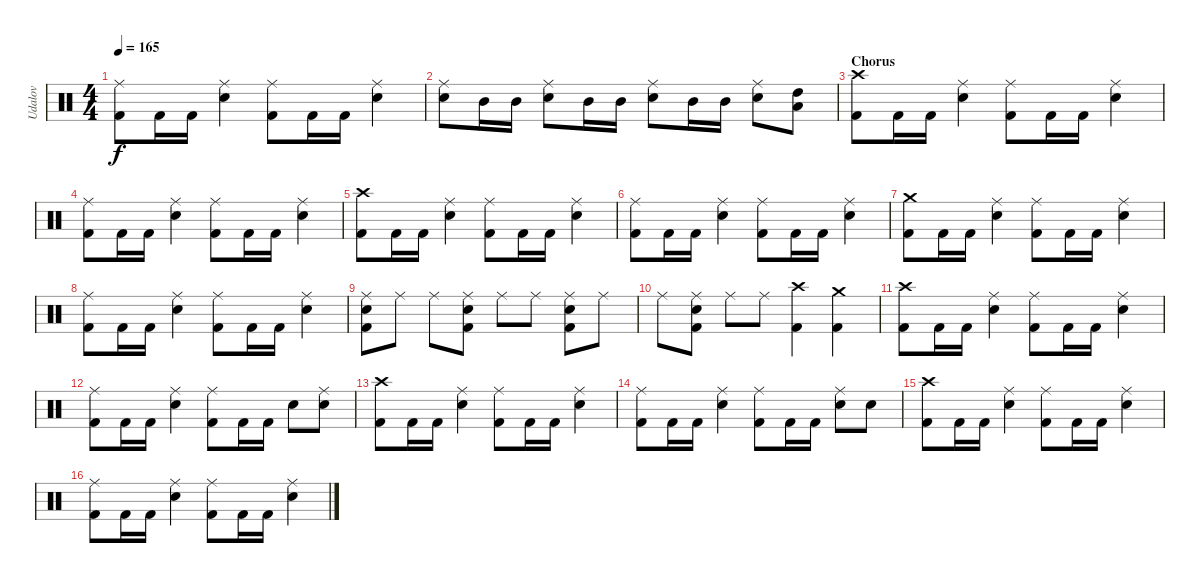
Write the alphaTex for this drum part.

\track ("Udalov" "Udalov") {instrument percussion}
\staff {score}
\articulation defaults
\ts (4 4)
\tempo 165
\clef neutral
\ks c
("Kick (hit) 2" "Ride (middle)").8{dy f} "Kick (hit) 2".16 "Kick (hit) 2".16 ("Snare (hit) 2" "Ride (middle)").4 ("Kick (hit) 2" "Ride (middle)").8 "Kick (hit) 2".16 "Kick (hit) 2".16 ("Snare (hit) 2" "Ride (middle)").4 |
("Electric Snare (hit)" "Ride (middle)").8 "Mid Tom (hit)".16 "Mid Tom (hit)".16 ("Electric Snare (hit)" "Ride (middle)").8 "Mid Tom (hit)".16 "Mid Tom (hit)".16 ("Electric Snare (hit)" "Ride (middle)").8 "Mid Tom (hit)".16 "Mid Tom (hit)".16 ("Electric Snare (hit)" "Ride (middle)").8 ("High Tom (hit)" "Low Tom (hit)").8 |
\section ("" "Chorus")
("Kick (hit) 2" "Crash high (hit)").8 "Kick (hit) 2".16 "Kick (hit) 2".16 ("Snare (hit) 2" "Ride (middle)").4 ("Kick (hit) 2" "Ride (middle)").8 "Kick (hit) 2".16 "Kick (hit) 2".16 ("Snare (hit) 2" "Ride (middle)").4 |
("Kick (hit) 2" "Ride (middle)").8 "Kick (hit) 2".16 "Kick (hit) 2".16 ("Snare (hit) 2" "Ride (middle)").4 ("Kick (hit) 2" "Ride (middle)").8 "Kick (hit) 2".16 "Kick (hit) 2".16 ("Snare (hit) 2" "Ride (middle)").4 |
("Kick (hit) 2" "Crash high (hit)").8 "Kick (hit) 2".16 "Kick (hit) 2".16 ("Snare (hit) 2" "Ride (middle)").4 ("Kick (hit) 2" "Ride (middle)").8 "Kick (hit) 2".16 "Kick (hit) 2".16 ("Snare (hit) 2" "Ride (middle)").4 |
("Kick (hit) 2" "Ride (middle)").8 "Kick (hit) 2".16 "Kick (hit) 2".16 ("Snare (hit) 2" "Ride (middle)").4 ("Kick (hit) 2" "Ride (middle)").8 "Kick (hit) 2".16 "Kick (hit) 2".16 ("Snare (hit) 2" "Ride (middle)").4 |
("Kick (hit) 2" "Crash medium (hit)").8 "Kick (hit) 2".16 "Kick (hit) 2".16 ("Snare (hit) 2" "Ride (middle)").4 ("Kick (hit) 2" "Ride (middle)").8 "Kick (hit) 2".16 "Kick (hit) 2".16 ("Snare (hit) 2" "Ride (middle)").4 |
("Kick (hit) 2" "Ride (middle)").8 "Kick (hit) 2".16 "Kick (hit) 2".16 ("Snare (hit) 2" "Ride (middle)").4 ("Kick (hit) 2" "Ride (middle)").8 "Kick (hit) 2".16 "Kick (hit) 2".16 ("Snare (hit) 2" "Ride (middle)").4 |
("Electric Snare (hit)" "Ride (middle)" "Kick (hit) 2").8 "Ride (middle)".8 "Ride (middle)".8 ("Electric Snare (hit)" "Ride (middle)" "Kick (hit) 2").8 "Ride (middle)".8 "Ride (middle)".8 ("Electric Snare (hit)" "Ride (middle)" "Kick (hit) 2").8 "Ride (middle)".8 |
"Ride (middle)".8 ("Electric Snare (hit)" "Ride (middle)" "Kick (hit) 2").8 "Ride (middle)".8 "Ride (middle)".8 ("Kick (hit) 2" "Crash high (hit)").4 ("Kick (hit) 2" "Crash medium (hit)").4 |
("Kick (hit) 2" "Crash high (hit)").8 "Kick (hit) 2".16 "Kick (hit) 2".16 ("Snare (hit) 2" "Ride (middle)").4 ("Kick (hit) 2" "Ride (middle)").8 "Kick (hit) 2".16 "Kick (hit) 2".16 ("Snare (hit) 2" "Ride (middle)").4 |
("Kick (hit) 2" "Ride (middle)").8 "Kick (hit) 2".16 "Kick (hit) 2".16 ("Snare (hit) 2" "Ride (middle)").4 ("Kick (hit) 2" "Ride (middle)").8 "Kick (hit) 2".16 "Kick (hit) 2".16 "Snare (hit) 2".8 ("Snare (hit) 2" "Ride (middle)").8 |
("Kick (hit) 2" "Crash high (hit)").8 "Kick (hit) 2".16 "Kick (hit) 2".16 ("Snare (hit) 2" "Ride (middle)").4 ("Kick (hit) 2" "Ride (middle)").8 "Kick (hit) 2".16 "Kick (hit) 2".16 ("Snare (hit) 2" "Ride (middle)").4 |
("Kick (hit) 2" "Ride (middle)").8 "Kick (hit) 2".16 "Kick (hit) 2".16 ("Snare (hit) 2" "Ride (middle)").4 ("Kick (hit) 2" "Ride (middle)").8 "Kick (hit) 2".16 "Kick (hit) 2".16 ("Snare (hit) 2" "Ride (middle)").8 "Snare (hit) 2".8 |
("Kick (hit) 2" "Crash high (hit)").8 "Kick (hit) 2".16 "Kick (hit) 2".16 ("Snare (hit) 2" "Ride (middle)").4 ("Kick (hit) 2" "Ride (middle)").8 "Kick (hit) 2".16 "Kick (hit) 2".16 ("Snare (hit) 2" "Ride (middle)").4 |
("Kick (hit) 2" "Ride (middle)").8 "Kick (hit) 2".16 "Kick (hit) 2".16 ("Snare (hit) 2" "Ride (middle)").4 ("Kick (hit) 2" "Ride (middle)").8 "Kick (hit) 2".16 "Kick (hit) 2".16 ("Snare (hit) 2" "Ride (middle)").4
